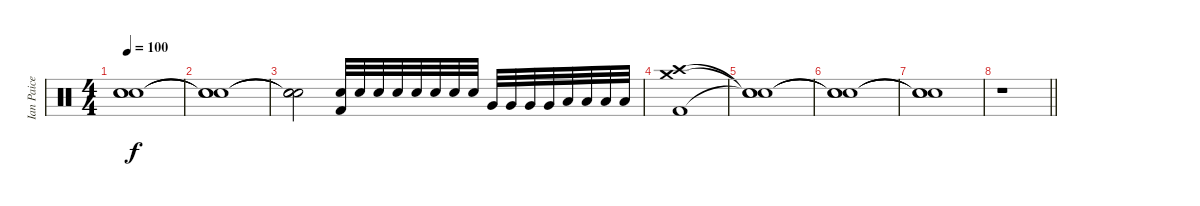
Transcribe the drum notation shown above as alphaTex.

\track ("Ian Paice - Drums" "Ian Paice ") {instrument percussion}
\staff {score}
\articulation defaults
\ts (4 4)
\tempo 100
\clef neutral
\ks c
("Snare (hit)"{t} "Snare (hit)"{t} "Snare (hit)"{t}).1{dy f} |
("Snare (hit)"{t} "Snare (hit)"{t} "Snare (hit)"{t}).1 |
("Snare (hit)"{t} "Snare (hit)"{t} "Snare (hit)"{t}).2 ("Kick (hit) 2" "Electric Snare (hit)").32 "Electric Snare (hit)".32 "Electric Snare (hit)".32 "Electric Snare (hit)".32 "Electric Snare (hit)".32 "Electric Snare (hit)".32 "Electric Snare (hit)".32 "Electric Snare (hit)".32 "Very Low Tom (hit)".32 "Very Low Tom (hit)".32 "Very Low Tom (hit)".32 "Very Low Tom (hit)".32 "Low Floor Tom (hit)".32 "Low Floor Tom (hit)".32 "Low Floor Tom (hit)".32 "Low Floor Tom (hit)".32 |
("Kick (hit) 2" "Crash medium (hit)" "Crash high (hit)").1 |
("Snare (hit)"{t} "Snare (hit)"{t} "Snare (hit)"{t}).1 |
("Snare (hit)"{t} "Snare (hit)"{t} "Snare (hit)"{t}).1 |
("Snare (hit)"{t} "Snare (hit)"{t} "Snare (hit)"{t}).1 |
\barLineRight lightlight
r.1
